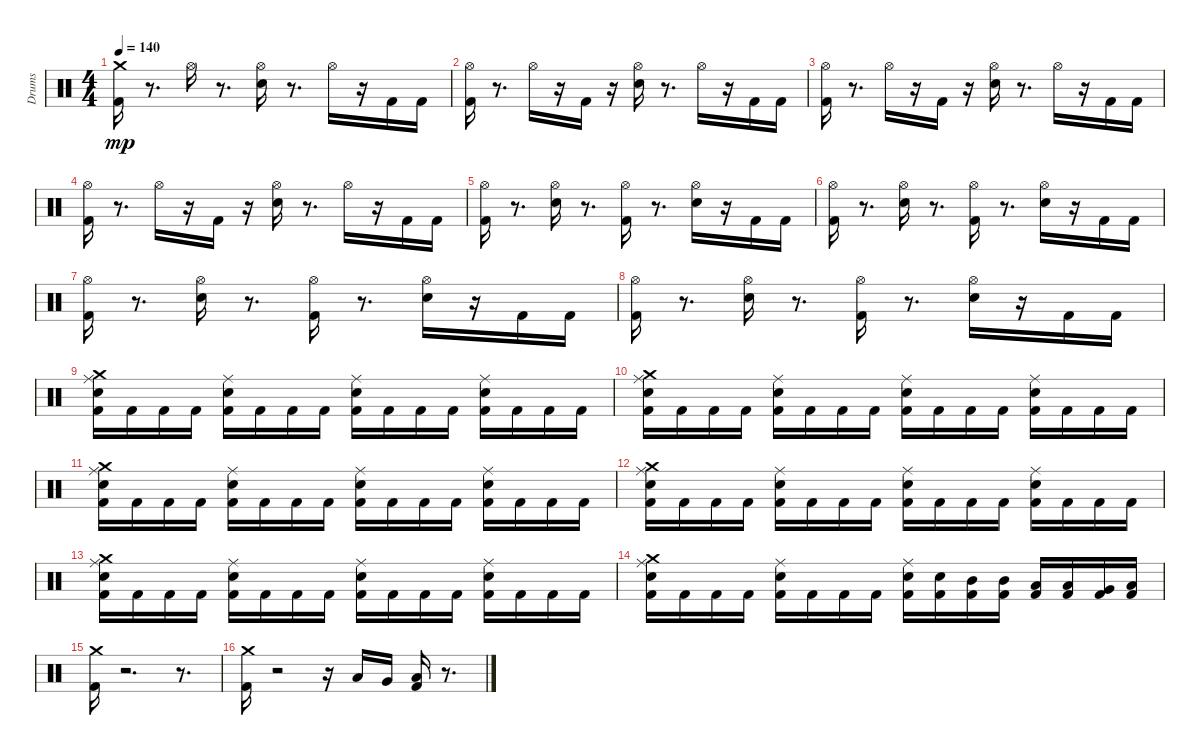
\track ("Drums" "Drums") {instrument percussion}
\staff {score}
\articulation defaults
\ts (4 4)
\tempo 140
\clef neutral
\ks c
("Kick (hit) 2" "Crash medium (hit)").16{dy mp} r.8{d} "Hi-Hat (open)".16 r.8{d} ("Electric Snare (hit)" "Hi-Hat (open)").16 r.8{d} "Hi-Hat (open)".16 r.16 "Kick (hit) 2".16 "Kick (hit) 2".16 |
("Kick (hit) 2" "Hi-Hat (open)").16 r.8{d} "Hi-Hat (open)".16 r.16 "Kick (hit) 2".16 r.16 ("Hi-Hat (open)" "Electric Snare (hit)").16 r.8{d} "Hi-Hat (open)".16 r.16 "Kick (hit) 2".16 "Kick (hit) 2".16 |
("Kick (hit) 2" "Hi-Hat (open)").16 r.8{d} "Hi-Hat (open)".16 r.16 "Kick (hit) 2".16 r.16 ("Hi-Hat (open)" "Electric Snare (hit)").16 r.8{d} "Hi-Hat (open)".16 r.16 "Kick (hit) 2".16 "Kick (hit) 2".16 |
("Hi-Hat (open)" "Kick (hit) 2").16 r.8{d} "Hi-Hat (open)".16 r.16 "Kick (hit) 2".16 r.16 ("Electric Snare (hit)" "Hi-Hat (open)").16 r.8{d} "Hi-Hat (open)".16 r.16 "Kick (hit) 2".16 "Kick (hit) 2".16 |
("Kick (hit) 2" "Hi-Hat (open)").16 r.8{d} ("Electric Snare (hit)" "Hi-Hat (open)").16 r.8{d} ("Kick (hit) 2" "Hi-Hat (open)").16 r.8{d} ("Hi-Hat (open)" "Electric Snare (hit)").16 r.16 "Kick (hit) 2".16 "Kick (hit) 2".16 |
("Hi-Hat (open)" "Kick (hit) 2").16 r.8{d} ("Electric Snare (hit)" "Hi-Hat (open)").16 r.8{d} ("Hi-Hat (open)" "Kick (hit) 2").16 r.8{d} ("Hi-Hat (open)" "Electric Snare (hit)").16 r.16 "Kick (hit) 2".16 "Kick (hit) 2".16 |
("Kick (hit) 2" "Hi-Hat (open)").16 r.8{d} ("Electric Snare (hit)" "Hi-Hat (open)").16 r.8{d} ("Hi-Hat (open)" "Kick (hit) 2").16 r.8{d} ("Hi-Hat (open)" "Electric Snare (hit)").16 r.16 "Kick (hit) 2".16 "Kick (hit) 2".16 |
("Kick (hit) 2" "Hi-Hat (open)").16 r.8{d} ("Hi-Hat (open)" "Electric Snare (hit)").16 r.8{d} ("Kick (hit) 2" "Hi-Hat (open)").16 r.8{d} ("Electric Snare (hit)" "Hi-Hat (open)").16 r.16 "Kick (hit) 2".16 "Kick (hit) 2".16 |
("Crash medium (hit)" "Ride (middle)" "Electric Snare (hit)" "Kick (hit) 2").16 "Kick (hit) 2".16 "Kick (hit) 2".16 "Kick (hit) 2".16 ("Kick (hit) 2" "Electric Snare (hit)" "Ride (middle)").16 "Kick (hit) 2".16 "Kick (hit) 2".16 "Kick (hit) 2".16 ("Kick (hit) 2" "Ride (middle)" "Electric Snare (hit)").16 "Kick (hit) 2".16 "Kick (hit) 2".16 "Kick (hit) 2".16 ("Ride (middle)" "Kick (hit) 2" "Electric Snare (hit)").16 "Kick (hit) 2".16 "Kick (hit) 2".16 "Kick (hit) 2".16 |
("Electric Snare (hit)" "Kick (hit) 2" "Ride (middle)" "Crash medium (hit)").16 "Kick (hit) 2".16 "Kick (hit) 2".16 "Kick (hit) 2".16 ("Ride (middle)" "Kick (hit) 2" "Electric Snare (hit)").16 "Kick (hit) 2".16 "Kick (hit) 2".16 "Kick (hit) 2".16 ("Electric Snare (hit)" "Kick (hit) 2" "Ride (middle)").16 "Kick (hit) 2".16 "Kick (hit) 2".16 "Kick (hit) 2".16 ("Electric Snare (hit)" "Ride (middle)" "Kick (hit) 2").16 "Kick (hit) 2".16 "Kick (hit) 2".16 "Kick (hit) 2".16 |
("Crash medium (hit)" "Ride (middle)" "Electric Snare (hit)" "Kick (hit) 2").16 "Kick (hit) 2".16 "Kick (hit) 2".16 "Kick (hit) 2".16 ("Electric Snare (hit)" "Ride (middle)" "Kick (hit) 2").16 "Kick (hit) 2".16 "Kick (hit) 2".16 "Kick (hit) 2".16 ("Ride (middle)" "Kick (hit) 2" "Electric Snare (hit)").16 "Kick (hit) 2".16 "Kick (hit) 2".16 "Kick (hit) 2".16 ("Electric Snare (hit)" "Ride (middle)" "Kick (hit) 2").16 "Kick (hit) 2".16 "Kick (hit) 2".16 "Kick (hit) 2".16 |
("Crash medium (hit)" "Kick (hit) 2" "Electric Snare (hit)" "Ride (middle)").16 "Kick (hit) 2".16 "Kick (hit) 2".16 "Kick (hit) 2".16 ("Electric Snare (hit)" "Ride (middle)" "Kick (hit) 2").16 "Kick (hit) 2".16 "Kick (hit) 2".16 "Kick (hit) 2".16 ("Electric Snare (hit)" "Ride (middle)" "Kick (hit) 2").16 "Kick (hit) 2".16 "Kick (hit) 2".16 "Kick (hit) 2".16 ("Electric Snare (hit)" "Kick (hit) 2" "Ride (middle)").16 "Kick (hit) 2".16 "Kick (hit) 2".16 "Kick (hit) 2".16 |
("Crash medium (hit)" "Ride (middle)" "Kick (hit) 2" "Electric Snare (hit)").16 "Kick (hit) 2".16 "Kick (hit) 2".16 "Kick (hit) 2".16 ("Kick (hit) 2" "Ride (middle)" "Electric Snare (hit)").16 "Kick (hit) 2".16 "Kick (hit) 2".16 "Kick (hit) 2".16 ("Ride (middle)" "Electric Snare (hit)" "Kick (hit) 2").16 "Kick (hit) 2".16 "Kick (hit) 2".16 "Kick (hit) 2".16 ("Electric Snare (hit)" "Ride (middle)" "Kick (hit) 2").16 "Kick (hit) 2".16 "Kick (hit) 2".16 "Kick (hit) 2".16 |
("Kick (hit) 2" "Electric Snare (hit)" "Ride (middle)" "Crash medium (hit)").16 "Kick (hit) 2".16 "Kick (hit) 2".16 "Kick (hit) 2".16 ("Kick (hit) 2" "Ride (middle)" "Electric Snare (hit)").16 "Kick (hit) 2".16 "Kick (hit) 2".16 "Kick (hit) 2".16 ("Electric Snare (hit)" "Kick (hit) 2" "Ride (middle)").16 ("Kick (hit) 2" "Electric Snare (hit)").16 ("Kick (hit) 2" "Mid Tom (hit)").16 ("Kick (hit) 2" "Mid Tom (hit)").16 ("Kick (hit) 2" "Low Tom (hit)").16 ("Low Tom (hit)" "Kick (hit) 2").16 ("Kick (hit) 2" "Very Low Tom (hit)").16 ("Kick (hit) 2" "Low Floor Tom (hit)").16 |
("Crash medium (hit)" "Kick (hit) 2").16 r.2{d} r.8{d} |
("Crash medium (hit)" "Kick (hit) 2").16 r.2 r.16 "Low Tom (hit)".16 "Very Low Tom (hit)".16 ("Low Floor Tom (hit)" "Kick (hit) 2").16 r.8{d}
